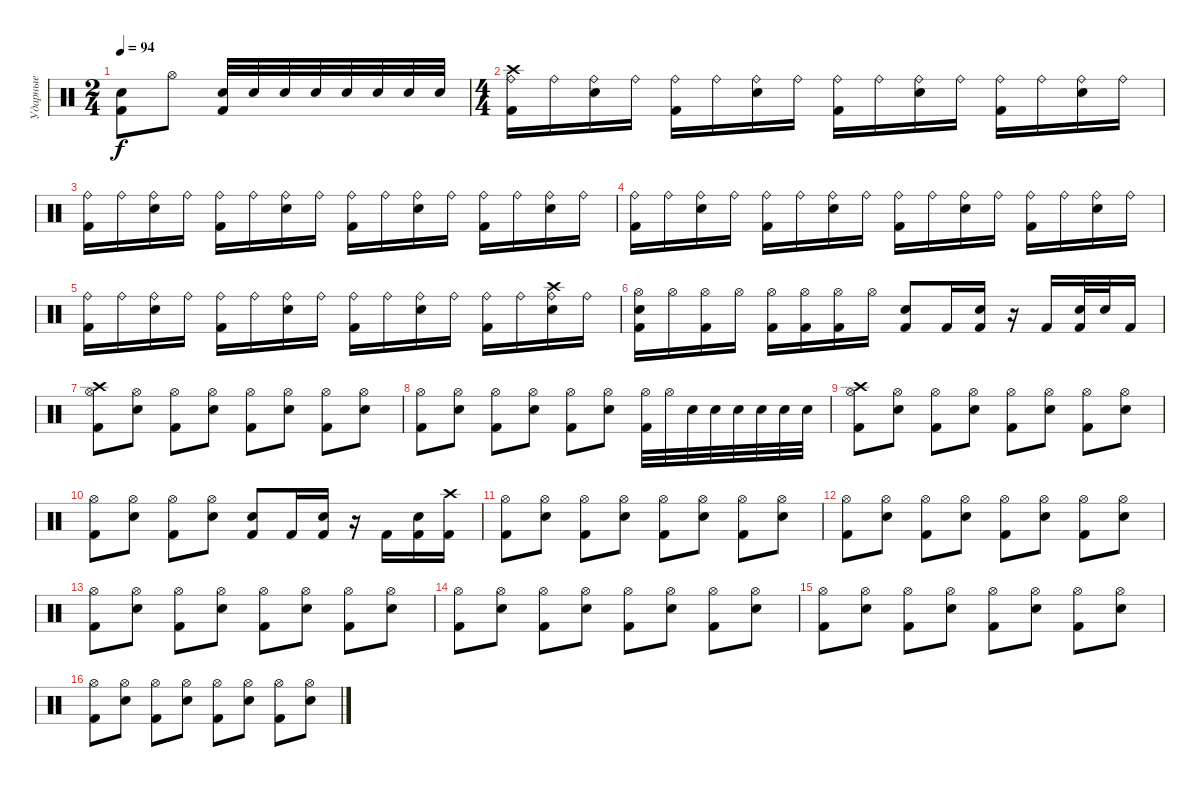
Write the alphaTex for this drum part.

\track ("Ударные" "Ударные") {instrument percussion}
\staff {score}
\articulation defaults
\ts (2 4)
\tempo 94
\clef neutral
\ks c
("Electric Snare (hit)" "Kick (hit) 2").8{dy f} "Hi-Hat (open)".8 ("Electric Snare (hit)" "Kick (hit) 2").32 "Electric Snare (hit)".32 "Electric Snare (hit)".32 "Electric Snare (hit)".32 "Electric Snare (hit)".32 "Electric Snare (hit)".32 "Electric Snare (hit)".32 "Electric Snare (hit)".32 |
\ts (4 4)
("Crash high (hit)" "Ride (bell)" "Kick (hit) 2").16 "Ride (bell)".16 ("Ride (bell)" "Electric Snare (hit)").16 "Ride (bell)".16 ("Ride (bell)" "Kick (hit) 2").16 "Ride (bell)".16 ("Ride (bell)" "Electric Snare (hit)").16 "Ride (bell)".16 ("Ride (bell)" "Kick (hit) 2").16 "Ride (bell)".16 ("Ride (bell)" "Electric Snare (hit)").16 "Ride (bell)".16 ("Ride (bell)" "Kick (hit) 2").16 "Ride (bell)".16 ("Ride (bell)" "Electric Snare (hit)").16 "Ride (bell)".16 |
("Ride (bell)" "Kick (hit) 2").16 "Ride (bell)".16 ("Ride (bell)" "Electric Snare (hit)").16 "Ride (bell)".16 ("Ride (bell)" "Kick (hit) 2").16 "Ride (bell)".16 ("Ride (bell)" "Electric Snare (hit)").16 "Ride (bell)".16 ("Ride (bell)" "Kick (hit) 2").16 "Ride (bell)".16 ("Ride (bell)" "Electric Snare (hit)").16 "Ride (bell)".16 ("Ride (bell)" "Kick (hit) 2").16 "Ride (bell)".16 ("Ride (bell)" "Electric Snare (hit)").16 "Ride (bell)".16 |
("Ride (bell)" "Kick (hit) 2").16 "Ride (bell)".16 ("Ride (bell)" "Electric Snare (hit)").16 "Ride (bell)".16 ("Ride (bell)" "Kick (hit) 2").16 "Ride (bell)".16 ("Ride (bell)" "Electric Snare (hit)").16 "Ride (bell)".16 ("Ride (bell)" "Kick (hit) 2").16 "Ride (bell)".16 ("Ride (bell)" "Electric Snare (hit)").16 "Ride (bell)".16 ("Ride (bell)" "Kick (hit) 2").16 "Ride (bell)".16 ("Ride (bell)" "Electric Snare (hit)").16 "Ride (bell)".16 |
("Ride (bell)" "Kick (hit) 2").16 "Ride (bell)".16 ("Ride (bell)" "Electric Snare (hit)").16 "Ride (bell)".16 ("Ride (bell)" "Kick (hit) 2").16 "Ride (bell)".16 ("Ride (bell)" "Electric Snare (hit)").16 "Ride (bell)".16 ("Ride (bell)" "Kick (hit) 2").16 "Ride (bell)".16 ("Ride (bell)" "Electric Snare (hit)").16 "Ride (bell)".16 ("Ride (bell)" "Kick (hit) 2").16 "Ride (bell)".16 ("Crash high (hit)" "Ride (bell)" "Electric Snare (hit)").16 "Ride (bell)".16 |
("Hi-Hat (open)" "Electric Snare (hit)" "Kick (hit) 2").16 "Hi-Hat (open)".16 ("Hi-Hat (open)" "Kick (hit) 2").16 "Hi-Hat (open)".16 ("Hi-Hat (open)" "Kick (hit) 2").16 ("Hi-Hat (open)" "Kick (hit) 2").16 ("Hi-Hat (open)" "Kick (hit) 2").16 "Hi-Hat (open)".16 ("Electric Snare (hit)" "Kick (hit) 2").8 "Kick (hit) 2".16 ("Electric Snare (hit)" "Kick (hit) 2").16 r.16 "Kick (hit) 2".16 ("Electric Snare (hit)" "Kick (hit) 2").32 "Electric Snare (hit)".32 "Kick (hit) 2".16 |
("Crash high (hit)" "Hi-Hat (open)" "Kick (hit) 2").8 ("Hi-Hat (open)" "Electric Snare (hit)").8 ("Hi-Hat (open)" "Kick (hit) 2").8 ("Hi-Hat (open)" "Electric Snare (hit)").8 ("Hi-Hat (open)" "Kick (hit) 2").8 ("Hi-Hat (open)" "Electric Snare (hit)").8 ("Hi-Hat (open)" "Kick (hit) 2").8 ("Hi-Hat (open)" "Electric Snare (hit)").8 |
("Hi-Hat (open)" "Kick (hit) 2").8 ("Hi-Hat (open)" "Electric Snare (hit)").8 ("Hi-Hat (open)" "Kick (hit) 2").8 ("Hi-Hat (open)" "Electric Snare (hit)").8 ("Hi-Hat (open)" "Kick (hit) 2").8 ("Hi-Hat (open)" "Electric Snare (hit)").8 ("Hi-Hat (open)" "Kick (hit) 2").32 "Hi-Hat (open)".32 "Electric Snare (hit)".32 "Electric Snare (hit)".32 "Electric Snare (hit)".32 "Electric Snare (hit)".32 "Electric Snare (hit)".32 "Electric Snare (hit)".32 |
("Crash high (hit)" "Hi-Hat (open)" "Kick (hit) 2").8 ("Hi-Hat (open)" "Electric Snare (hit)").8 ("Hi-Hat (open)" "Kick (hit) 2").8 ("Hi-Hat (open)" "Electric Snare (hit)").8 ("Hi-Hat (open)" "Kick (hit) 2").8 ("Hi-Hat (open)" "Electric Snare (hit)").8 ("Hi-Hat (open)" "Kick (hit) 2").8 ("Hi-Hat (open)" "Electric Snare (hit)").8 |
("Hi-Hat (open)" "Kick (hit) 2").8 ("Hi-Hat (open)" "Electric Snare (hit)").8 ("Hi-Hat (open)" "Kick (hit) 2").8 ("Hi-Hat (open)" "Electric Snare (hit)").8 ("Electric Snare (hit)" "Kick (hit) 2").8 "Kick (hit) 2".16 ("Electric Snare (hit)" "Kick (hit) 2").16 r.16 "Kick (hit) 2".16 ("Electric Snare (hit)" "Kick (hit) 2").16 ("Crash high (hit)" "Kick (hit) 2").16 |
("Hi-Hat (open)" "Kick (hit) 2").8 ("Hi-Hat (open)" "Electric Snare (hit)").8 ("Hi-Hat (open)" "Kick (hit) 2").8 ("Hi-Hat (open)" "Electric Snare (hit)").8 ("Hi-Hat (open)" "Kick (hit) 2").8 ("Hi-Hat (open)" "Electric Snare (hit)").8 ("Hi-Hat (open)" "Kick (hit) 2").8 ("Hi-Hat (open)" "Electric Snare (hit)").8 |
("Hi-Hat (open)" "Kick (hit) 2").8 ("Hi-Hat (open)" "Electric Snare (hit)").8 ("Hi-Hat (open)" "Kick (hit) 2").8 ("Hi-Hat (open)" "Electric Snare (hit)").8 ("Hi-Hat (open)" "Kick (hit) 2").8 ("Hi-Hat (open)" "Electric Snare (hit)").8 ("Hi-Hat (open)" "Kick (hit) 2").8 ("Hi-Hat (open)" "Electric Snare (hit)").8 |
("Hi-Hat (open)" "Kick (hit) 2").8 ("Hi-Hat (open)" "Electric Snare (hit)").8 ("Hi-Hat (open)" "Kick (hit) 2").8 ("Hi-Hat (open)" "Electric Snare (hit)").8 ("Hi-Hat (open)" "Kick (hit) 2").8 ("Hi-Hat (open)" "Electric Snare (hit)").8 ("Hi-Hat (open)" "Kick (hit) 2").8 ("Hi-Hat (open)" "Electric Snare (hit)").8 |
("Hi-Hat (open)" "Kick (hit) 2").8 ("Hi-Hat (open)" "Electric Snare (hit)").8 ("Hi-Hat (open)" "Kick (hit) 2").8 ("Hi-Hat (open)" "Electric Snare (hit)").8 ("Hi-Hat (open)" "Kick (hit) 2").8 ("Hi-Hat (open)" "Electric Snare (hit)").8 ("Hi-Hat (open)" "Kick (hit) 2").8 ("Hi-Hat (open)" "Electric Snare (hit)").8 |
("Hi-Hat (open)" "Kick (hit) 2").8 ("Hi-Hat (open)" "Electric Snare (hit)").8 ("Hi-Hat (open)" "Kick (hit) 2").8 ("Hi-Hat (open)" "Electric Snare (hit)").8 ("Hi-Hat (open)" "Kick (hit) 2").8 ("Hi-Hat (open)" "Electric Snare (hit)").8 ("Hi-Hat (open)" "Kick (hit) 2").8 ("Hi-Hat (open)" "Electric Snare (hit)").8 |
("Hi-Hat (open)" "Kick (hit) 2").8 ("Hi-Hat (open)" "Electric Snare (hit)").8 ("Hi-Hat (open)" "Kick (hit) 2").8 ("Hi-Hat (open)" "Electric Snare (hit)").8 ("Hi-Hat (open)" "Kick (hit) 2").8 ("Hi-Hat (open)" "Electric Snare (hit)").8 ("Hi-Hat (open)" "Kick (hit) 2").8 ("Hi-Hat (open)" "Electric Snare (hit)").8
